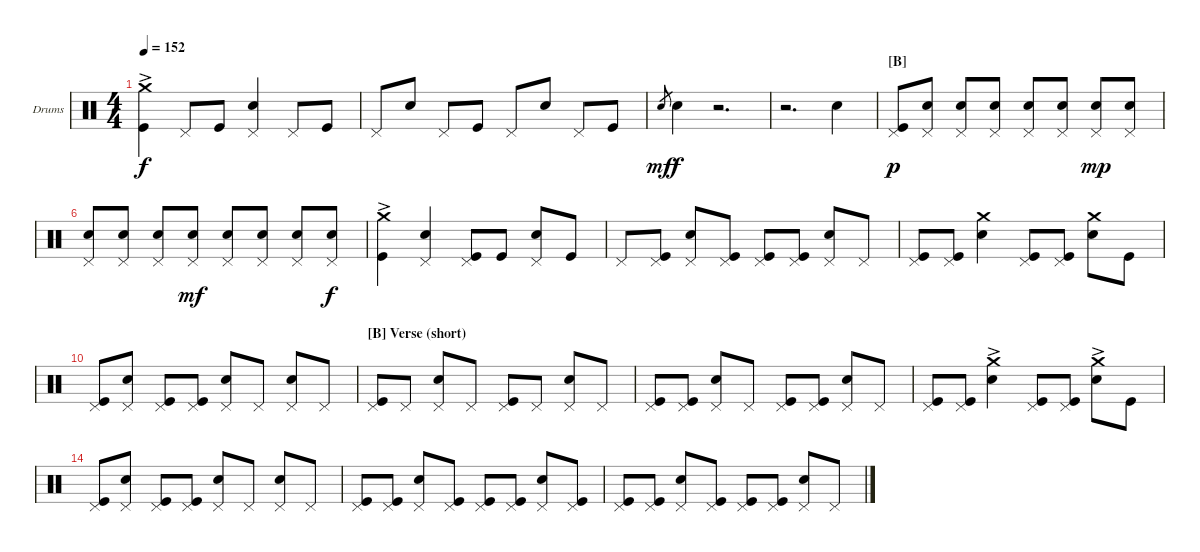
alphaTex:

\bracketExtendMode nobrackets
\firstSystemTrackNameOrientation horizontal
\otherSystemsTrackNameOrientation horizontal
\defaultBarNumberDisplay FirstOfSystem
\track ("Drumkit" "Drums") {instrument percussion}
\staff {score}
\articulation defaults
\ts (4 4)
\tempo 152
\clef neutral
\ks c
("Crash medium (hit)"{ac} "Kick (hit)").4{dy f} "Pedal Hi-Hat (hit)".8 "Kick (hit)".8 ("Pedal Hi-Hat (hit)" "Snare (hit) 2").4 "Pedal Hi-Hat (hit)".8 "Kick (hit)".8 |
"Pedal Hi-Hat (hit)".8 "Snare (hit) 2".8 "Pedal Hi-Hat (hit)".8 "Kick (hit)".8 "Pedal Hi-Hat (hit)".8 "Snare (hit) 2".8 "Pedal Hi-Hat (hit)".8 "Kick (hit)".8 |
"Snare (hit) 2".8{gr dy mf} "Snare (hit) 2".4{dy f} r.2{d} |
r.2{d} "Snare (hit) 2".4 |
\section ("B" "")
("Pedal Hi-Hat (hit)" "Kick (hit)").8{dy p} ("Pedal Hi-Hat (hit)" "Snare (hit) 2").8 ("Pedal Hi-Hat (hit)" "Snare (hit) 2").8 ("Pedal Hi-Hat (hit)" "Snare (hit) 2").8 ("Pedal Hi-Hat (hit)" "Snare (hit) 2").8 ("Pedal Hi-Hat (hit)" "Snare (hit) 2").8 ("Pedal Hi-Hat (hit)" "Snare (hit) 2").8{dy mp} ("Pedal Hi-Hat (hit)" "Snare (hit) 2").8 |
("Pedal Hi-Hat (hit)" "Snare (hit) 2").8 ("Pedal Hi-Hat (hit)" "Snare (hit) 2").8 ("Pedal Hi-Hat (hit)" "Snare (hit) 2").8 ("Pedal Hi-Hat (hit)" "Snare (hit) 2").8{dy mf} ("Pedal Hi-Hat (hit)" "Snare (hit) 2").8 ("Pedal Hi-Hat (hit)" "Snare (hit) 2").8 ("Pedal Hi-Hat (hit)" "Snare (hit) 2").8 ("Pedal Hi-Hat (hit)" "Snare (hit) 2").8{dy f} |
("Crash medium (hit)"{ac} "Kick (hit)").4 ("Pedal Hi-Hat (hit)" "Snare (hit) 2").4 ("Pedal Hi-Hat (hit)" "Kick (hit)").8 "Kick (hit)".8 ("Pedal Hi-Hat (hit)" "Snare (hit) 2").8 "Kick (hit)".8 |
"Pedal Hi-Hat (hit)".8 ("Pedal Hi-Hat (hit)" "Kick (hit)").8 ("Pedal Hi-Hat (hit)" "Snare (hit) 2").8 ("Pedal Hi-Hat (hit)" "Kick (hit)").8 ("Pedal Hi-Hat (hit)" "Kick (hit)").8 ("Pedal Hi-Hat (hit)" "Kick (hit)").8 ("Pedal Hi-Hat (hit)" "Snare (hit) 2").8 "Pedal Hi-Hat (hit)".8 |
("Pedal Hi-Hat (hit)" "Kick (hit)").8 ("Pedal Hi-Hat (hit)" "Kick (hit)").8 ("Crash medium (hit)" "Snare (hit) 2").4 ("Pedal Hi-Hat (hit)" "Kick (hit)").8 ("Pedal Hi-Hat (hit)" "Kick (hit)").8 ("Crash medium (hit)" "Snare (hit) 2").8 "Kick (hit)".8 |
("Pedal Hi-Hat (hit)" "Kick (hit)").8 ("Pedal Hi-Hat (hit)" "Snare (hit) 2").8 ("Pedal Hi-Hat (hit)" "Kick (hit)").8 ("Pedal Hi-Hat (hit)" "Kick (hit)").8 ("Pedal Hi-Hat (hit)" "Snare (hit) 2").8 "Pedal Hi-Hat (hit)".8 ("Pedal Hi-Hat (hit)" "Snare (hit) 2").8 "Pedal Hi-Hat (hit)".8 |
\section ("B" "Verse (short)")
("Pedal Hi-Hat (hit)" "Kick (hit)").8 "Pedal Hi-Hat (hit)".8 ("Pedal Hi-Hat (hit)" "Snare (hit) 2").8 "Pedal Hi-Hat (hit)".8 ("Pedal Hi-Hat (hit)" "Kick (hit)").8 "Pedal Hi-Hat (hit)".8 ("Pedal Hi-Hat (hit)" "Snare (hit) 2").8 "Pedal Hi-Hat (hit)".8 |
("Pedal Hi-Hat (hit)" "Kick (hit)").8 ("Pedal Hi-Hat (hit)" "Kick (hit)").8 ("Pedal Hi-Hat (hit)" "Snare (hit) 2").8 "Pedal Hi-Hat (hit)".8 ("Pedal Hi-Hat (hit)" "Kick (hit)").8 ("Pedal Hi-Hat (hit)" "Kick (hit)").8 ("Pedal Hi-Hat (hit)" "Snare (hit) 2").8 "Pedal Hi-Hat (hit)".8 |
("Pedal Hi-Hat (hit)" "Kick (hit)").8 ("Pedal Hi-Hat (hit)" "Kick (hit)").8 ("Crash medium (hit)"{ac} "Snare (hit) 2").4 ("Pedal Hi-Hat (hit)" "Kick (hit)").8 ("Pedal Hi-Hat (hit)" "Kick (hit)").8 ("Crash medium (hit)"{ac} "Snare (hit) 2").8 "Kick (hit)".8 |
("Pedal Hi-Hat (hit)" "Kick (hit)").8 ("Pedal Hi-Hat (hit)" "Snare (hit) 2").8 ("Pedal Hi-Hat (hit)" "Kick (hit)").8 ("Pedal Hi-Hat (hit)" "Kick (hit)").8 ("Pedal Hi-Hat (hit)" "Snare (hit) 2").8 "Pedal Hi-Hat (hit)".8 ("Pedal Hi-Hat (hit)" "Snare (hit) 2").8 "Pedal Hi-Hat (hit)".8 |
("Pedal Hi-Hat (hit)" "Kick (hit)").8 ("Pedal Hi-Hat (hit)" "Kick (hit)").8 ("Pedal Hi-Hat (hit)" "Snare (hit) 2").8 ("Pedal Hi-Hat (hit)" "Kick (hit)").8 ("Pedal Hi-Hat (hit)" "Kick (hit)").8 ("Pedal Hi-Hat (hit)" "Kick (hit)").8 ("Pedal Hi-Hat (hit)" "Snare (hit) 2").8 ("Pedal Hi-Hat (hit)" "Kick (hit)").8 |
("Pedal Hi-Hat (hit)" "Kick (hit)").8 ("Pedal Hi-Hat (hit)" "Kick (hit)").8 ("Pedal Hi-Hat (hit)" "Snare (hit) 2").8 ("Pedal Hi-Hat (hit)" "Kick (hit)").8 ("Pedal Hi-Hat (hit)" "Kick (hit)").8 ("Pedal Hi-Hat (hit)" "Kick (hit)").8 ("Pedal Hi-Hat (hit)" "Snare (hit) 2").8 "Pedal Hi-Hat (hit)".8
